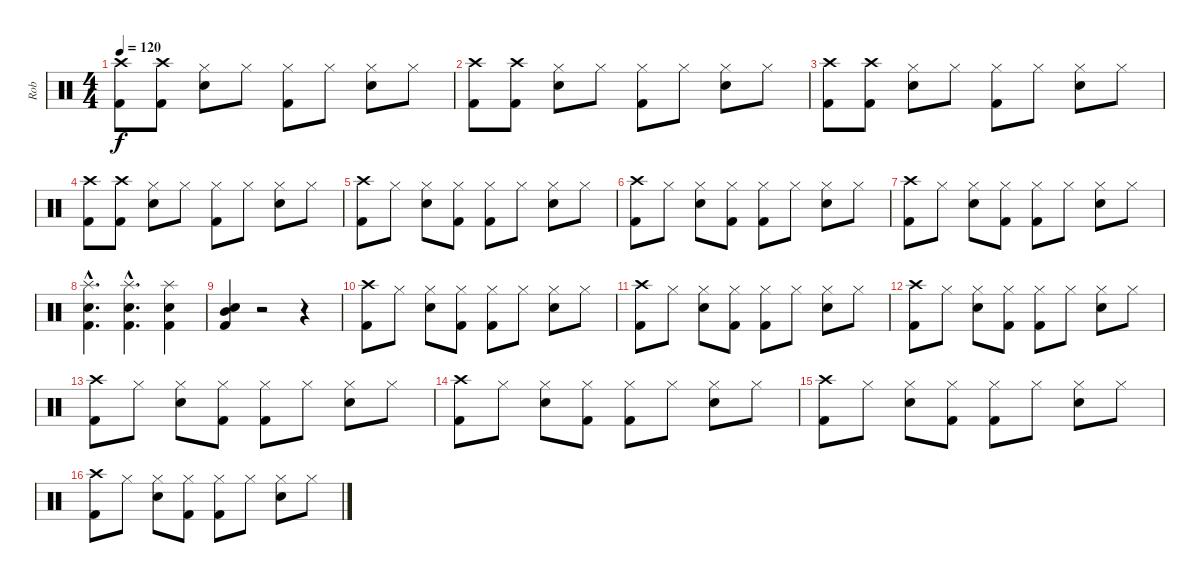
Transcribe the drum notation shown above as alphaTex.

\track ("Rob" "Rob") {instrument percussion}
\staff {score}
\articulation defaults
\ts (4 4)
\tempo 120
\clef neutral
\ks c
("Crash high (hit)" "Kick (hit) 2").8{dy f} ("Crash high (hit)" "Kick (hit) 2").8 ("Hi-Hat (closed)" "Snare (hit) 2").8 "Hi-Hat (closed)".8 ("Hi-Hat (closed)" "Kick (hit) 2").8 "Hi-Hat (closed)".8 ("Hi-Hat (closed)" "Snare (hit) 2").8 "Hi-Hat (closed)".8 |
("Crash high (hit)" "Kick (hit) 2").8 ("Crash high (hit)" "Kick (hit) 2").8 ("Hi-Hat (closed)" "Snare (hit) 2").8 "Hi-Hat (closed)".8 ("Hi-Hat (closed)" "Kick (hit) 2").8 "Hi-Hat (closed)".8 ("Hi-Hat (closed)" "Snare (hit) 2").8 "Hi-Hat (closed)".8 |
("Crash high (hit)" "Kick (hit) 2").8 ("Crash high (hit)" "Kick (hit) 2").8 ("Hi-Hat (closed)" "Snare (hit) 2").8 "Hi-Hat (closed)".8 ("Hi-Hat (closed)" "Kick (hit) 2").8 "Hi-Hat (closed)".8 ("Hi-Hat (closed)" "Snare (hit) 2").8 "Hi-Hat (closed)".8 |
("Crash high (hit)" "Kick (hit) 2").8 ("Crash high (hit)" "Kick (hit) 2").8 ("Hi-Hat (closed)" "Snare (hit) 2").8 "Hi-Hat (closed)".8 ("Hi-Hat (closed)" "Kick (hit) 2").8 "Hi-Hat (closed)".8 ("Hi-Hat (closed)" "Snare (hit) 2").8 "Hi-Hat (closed)".8 |
("Crash high (hit)" "Kick (hit) 2").8 "Hi-Hat (closed)".8 ("Hi-Hat (closed)" "Snare (hit) 2").8 ("Hi-Hat (closed)" "Kick (hit) 2").8 ("Hi-Hat (closed)" "Kick (hit) 2").8 "Hi-Hat (closed)".8 ("Hi-Hat (closed)" "Snare (hit) 2").8 "Hi-Hat (closed)".8 |
("Crash high (hit)" "Kick (hit) 2").8 "Hi-Hat (closed)".8 ("Hi-Hat (closed)" "Snare (hit) 2").8 ("Hi-Hat (closed)" "Kick (hit) 2").8 ("Hi-Hat (closed)" "Kick (hit) 2").8 "Hi-Hat (closed)".8 ("Hi-Hat (closed)" "Snare (hit) 2").8 "Hi-Hat (closed)".8 |
("Crash high (hit)" "Kick (hit) 2").8 "Hi-Hat (closed)".8 ("Hi-Hat (closed)" "Snare (hit) 2").8 ("Hi-Hat (closed)" "Kick (hit) 2").8 ("Hi-Hat (closed)" "Kick (hit) 2").8 "Hi-Hat (closed)".8 ("Hi-Hat (closed)" "Snare (hit) 2").8 "Hi-Hat (closed)".8 |
("Splash (hit)"{hac} "Snare (hit) 2"{hac} "Kick (hit) 2"{hac}).4{d} ("Splash (hit)"{hac} "Snare (hit) 2"{hac} "Kick (hit) 2"{hac}).4{d} ("Splash (hit)" "Snare (hit) 2" "Kick (hit) 2").4 |
("Mid Tom (hit)" "Kick (hit) 2" "Snare (hit) 2").4 r.2 r.4 |
("Crash high (hit)" "Kick (hit) 2").8 "Hi-Hat (closed)".8 ("Hi-Hat (closed)" "Snare (hit) 2").8 ("Hi-Hat (closed)" "Kick (hit) 2").8 ("Hi-Hat (closed)" "Kick (hit) 2").8 "Hi-Hat (closed)".8 ("Hi-Hat (closed)" "Snare (hit) 2").8 "Hi-Hat (closed)".8 |
("Crash high (hit)" "Kick (hit) 2").8 "Hi-Hat (closed)".8 ("Hi-Hat (closed)" "Snare (hit) 2").8 ("Hi-Hat (closed)" "Kick (hit) 2").8 ("Hi-Hat (closed)" "Kick (hit) 2").8 "Hi-Hat (closed)".8 ("Hi-Hat (closed)" "Snare (hit) 2").8 "Hi-Hat (closed)".8 |
("Crash high (hit)" "Kick (hit) 2").8 "Hi-Hat (closed)".8 ("Hi-Hat (closed)" "Snare (hit) 2").8 ("Hi-Hat (closed)" "Kick (hit) 2").8 ("Hi-Hat (closed)" "Kick (hit) 2").8 "Hi-Hat (closed)".8 ("Hi-Hat (closed)" "Snare (hit) 2").8 "Hi-Hat (closed)".8 |
("Crash high (hit)" "Kick (hit) 2").8 "Hi-Hat (closed)".8 ("Hi-Hat (closed)" "Snare (hit) 2").8 ("Hi-Hat (closed)" "Kick (hit) 2").8 ("Hi-Hat (closed)" "Kick (hit) 2").8 "Hi-Hat (closed)".8 ("Hi-Hat (closed)" "Snare (hit) 2").8 "Hi-Hat (closed)".8 |
("Crash high (hit)" "Kick (hit) 2").8 "Hi-Hat (closed)".8 ("Hi-Hat (closed)" "Snare (hit) 2").8 ("Hi-Hat (closed)" "Kick (hit) 2").8 ("Hi-Hat (closed)" "Kick (hit) 2").8 "Hi-Hat (closed)".8 ("Hi-Hat (closed)" "Snare (hit) 2").8 "Hi-Hat (closed)".8 |
("Crash high (hit)" "Kick (hit) 2").8 "Hi-Hat (closed)".8 ("Hi-Hat (closed)" "Snare (hit) 2").8 ("Hi-Hat (closed)" "Kick (hit) 2").8 ("Hi-Hat (closed)" "Kick (hit) 2").8 "Hi-Hat (closed)".8 ("Hi-Hat (closed)" "Snare (hit) 2").8 "Hi-Hat (closed)".8 |
("Crash high (hit)" "Kick (hit) 2").8 "Hi-Hat (closed)".8 ("Hi-Hat (closed)" "Snare (hit) 2").8 ("Hi-Hat (closed)" "Kick (hit) 2").8 ("Hi-Hat (closed)" "Kick (hit) 2").8 "Hi-Hat (closed)".8 ("Hi-Hat (closed)" "Snare (hit) 2").8 "Hi-Hat (closed)".8
